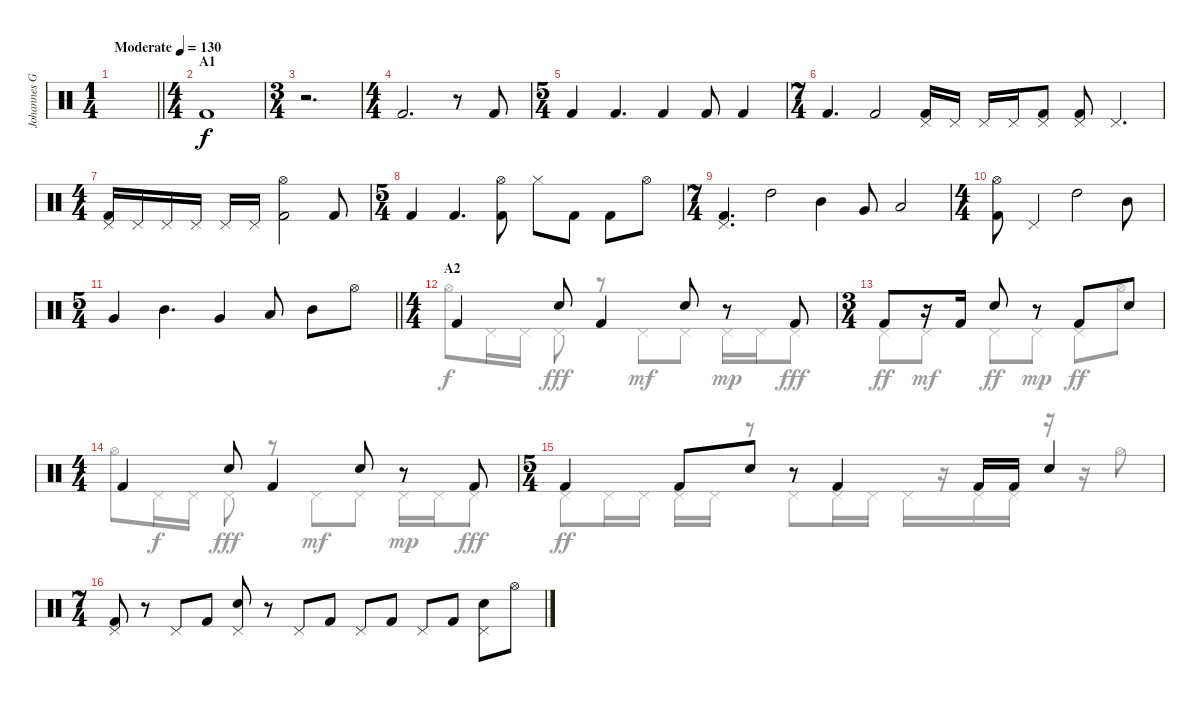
\track ("Johannes Grossmann" "Johannes G") {instrument percussion}
\staff {score}
\articulation defaults
\voice
\ts (1 4)
\tempo (130 "Moderate")
\clef neutral
\barLineRight lightlight
\ks c
|
\ts (4 4)
\section ("" "A1")
"Kick (hit) 2".1 |
\ts (3 4)
r.2{d} |
\ts (4 4)
"Kick (hit) 2".2{d} r.8 "Kick (hit) 2".8 |
\ts (5 4)
"Kick (hit) 2".4 "Kick (hit) 2".4{d} "Kick (hit) 2".4 "Kick (hit) 2".8 "Kick (hit) 2".4 |
\ts (7 4)
"Kick (hit) 2".4{d} "Kick (hit) 2".2 ("Pedal Hi-Hat (hit)" "Kick (hit) 2").16 "Pedal Hi-Hat (hit)".16 "Pedal Hi-Hat (hit)".16 "Pedal Hi-Hat (hit)".16 ("Pedal Hi-Hat (hit)" "Kick (hit) 2").8 ("Pedal Hi-Hat (hit)" "Kick (hit) 2").8 "Pedal Hi-Hat (hit)".4{d} |
\ts (4 4)
("Pedal Hi-Hat (hit)" "Kick (hit) 2").16 "Pedal Hi-Hat (hit)".16 "Pedal Hi-Hat (hit)".16 "Pedal Hi-Hat (hit)".16 "Pedal Hi-Hat (hit)".16 "Pedal Hi-Hat (hit)".16 ("Hi-Hat (open)" "Kick (hit) 2").2 "Kick (hit) 2".8 |
\ts (5 4)
"Kick (hit) 2".4 "Kick (hit) 2".4{d} ("Hi-Hat (open)" "Kick (hit) 2").8 "Hi-Hat (closed)".8 "Kick (hit) 2".8 "Kick (hit) 2".8 "Hi-Hat (open)".8 |
\ts (7 4)
("Pedal Hi-Hat (hit)" "Kick (hit) 2").4{d} "High Tom (hit)".2 "Mid Tom (hit)".4 "Very Low Tom (hit)".8 "Low Floor Tom (hit)".2 |
\ts (4 4)
("Hi-Hat (open)" "Kick (hit) 2").8 "Pedal Hi-Hat (hit)".4 "High Tom (hit)".2 "Mid Tom (hit)".8 |
\ts (5 4)
\barLineRight lightlight "Very Low Tom (hit)".4 "Mid Tom (hit)".4{d} "Very Low Tom (hit)".4 "Low Floor Tom (hit)".8 "Mid Tom (hit)".8 "Hi-Hat (open)".8
|
\ts (4 4)
\section ("" "A2")
"Kick (hit) 2".4 "Snare (hit) 2".8 "Kick (hit) 2".4 "Snare (hit) 2".8 r.8 "Kick (hit) 2".8 |
\ts (3 4)
"Kick (hit) 2".8 r.16 "Kick (hit) 2".16 "Snare (hit) 2".8 r.8 "Kick (hit) 2".8 "Snare (hit) 2".8 |
\ts (4 4)
"Kick (hit) 2".4 "Snare (hit) 2".8 "Kick (hit) 2".4 "Snare (hit) 2".8 r.8 "Kick (hit) 2".8 |
\ts (5 4)
"Kick (hit) 2".4 "Kick (hit) 2".8 "Snare (hit) 2".8 r.8 "Kick (hit) 2".4 "Kick (hit) 2".16 "Kick (hit) 2".16 "Snare (hit) 2".4 |
\ts (7 4)
("Pedal Hi-Hat (hit)" "Kick (hit) 2").8 r.8 "Pedal Hi-Hat (hit)".8 "Kick (hit) 2".8 ("Pedal Hi-Hat (hit)" "Snare (hit) 2").8 r.8 "Pedal Hi-Hat (hit)".8 "Kick (hit) 2".8 "Pedal Hi-Hat (hit)".8 "Kick (hit) 2".8 "Pedal Hi-Hat (hit)".8 "Kick (hit) 2".8 ("Pedal Hi-Hat (hit)" "Snare (hit) 2").8 "Hi-Hat (open)".8
\voice
\clef neutral
\ottava regular
\simile none
\barLineRight lightlight
\ks c
|
|
|
|
|
|
|
|
|
|
\barLineRight lightlight
|
"Hi-Hat (open)".8 "Pedal Hi-Hat (hit)".16{dy f} "Pedal Hi-Hat (hit)".16 "Pedal Hi-Hat (hit)".8{dy fff} r.8 "Pedal Hi-Hat (hit)".8{dy mf} "Pedal Hi-Hat (hit)".8 "Pedal Hi-Hat (hit)".16{dy mp} "Pedal Hi-Hat (hit)".16 "Pedal Hi-Hat (hit)".8{dy fff} |
"Pedal Hi-Hat (hit)".8{dy ff} "Pedal Hi-Hat (hit)".8{dy mf} "Pedal Hi-Hat (hit)".8{dy ff} "Pedal Hi-Hat (hit)".8{dy mp} "Pedal Hi-Hat (hit)".8{dy ff} "Hi-Hat (open)".8 |
"Hi-Hat (open)".8 "Pedal Hi-Hat (hit)".16{dy f} "Pedal Hi-Hat (hit)".16 "Pedal Hi-Hat (hit)".8{dy fff} r.8 "Pedal Hi-Hat (hit)".8{dy mf} "Pedal Hi-Hat (hit)".8 "Pedal Hi-Hat (hit)".16{dy mp} "Pedal Hi-Hat (hit)".16 "Pedal Hi-Hat (hit)".8{dy fff} |
"Pedal Hi-Hat (hit)".8{dy ff} "Pedal Hi-Hat (hit)".16 "Pedal Hi-Hat (hit)".16 "Pedal Hi-Hat (hit)".16 "Pedal Hi-Hat (hit)".16 r.8 "Pedal Hi-Hat (hit)".8 "Pedal Hi-Hat (hit)".16 "Pedal Hi-Hat (hit)".16 "Pedal Hi-Hat (hit)".16 r.16 "Pedal Hi-Hat (hit)".16 "Pedal Hi-Hat (hit)".16 r.16 r.16 "Hi-Hat (open)".8 |
